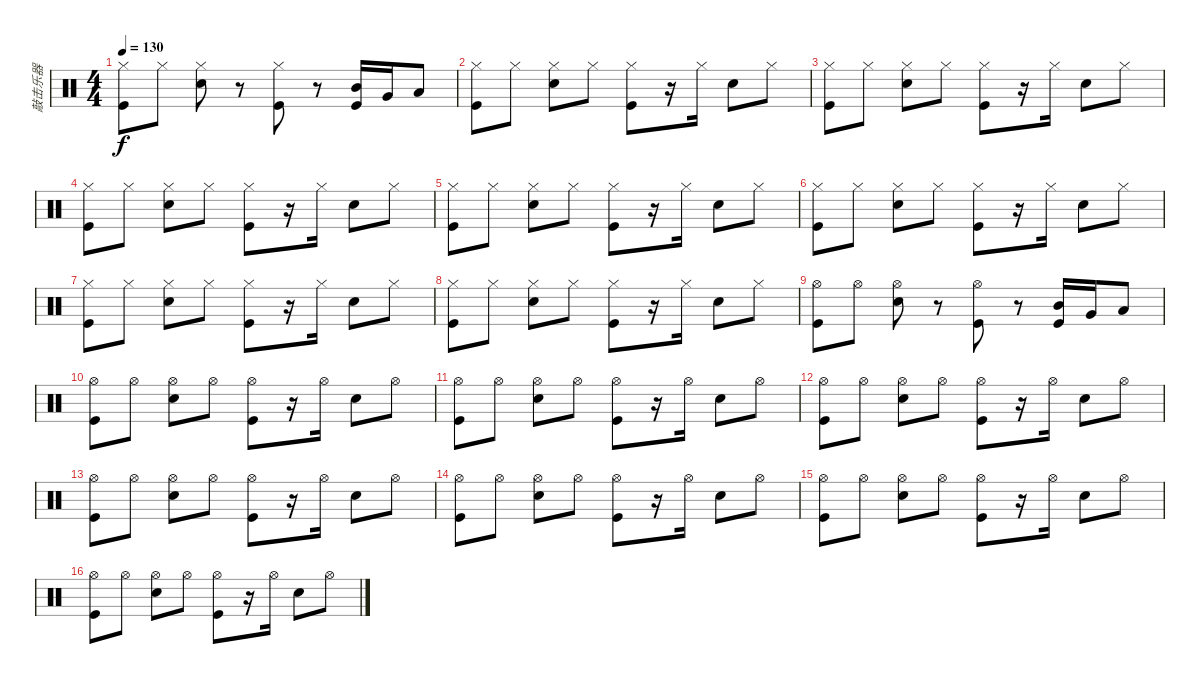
\track ("敲击乐器" "敲击乐器") {instrument percussion}
\staff {score}
\articulation defaults
\ts (4 4)
\tempo 130
\clef neutral
\ks c
("Hi-Hat (closed)" "Kick (hit)").8{dy f} "Hi-Hat (closed)".8 ("Hi-Hat (closed)" "Snare (hit) 2").8 r.8 ("Hi-Hat (closed)" "Kick (hit)").8 r.8 ("Mid Tom (hit)" "Kick (hit)").16 "Very Low Tom (hit)".16 "Low Floor Tom (hit)".8 |
("Hi-Hat (closed)" "Kick (hit)").8 "Hi-Hat (closed)".8 ("Hi-Hat (closed)" "Snare (hit) 2").8 "Hi-Hat (closed)".8 ("Hi-Hat (closed)" "Kick (hit)").8 r.16 "Hi-Hat (closed)".16 "Snare (hit) 2".8 "Hi-Hat (closed)".8 |
("Hi-Hat (closed)" "Kick (hit)").8 "Hi-Hat (closed)".8 ("Hi-Hat (closed)" "Snare (hit) 2").8 "Hi-Hat (closed)".8 ("Hi-Hat (closed)" "Kick (hit)").8 r.16 "Hi-Hat (closed)".16 "Snare (hit) 2".8 "Hi-Hat (closed)".8 |
("Hi-Hat (closed)" "Kick (hit)").8 "Hi-Hat (closed)".8 ("Hi-Hat (closed)" "Snare (hit) 2").8 "Hi-Hat (closed)".8 ("Hi-Hat (closed)" "Kick (hit)").8 r.16 "Hi-Hat (closed)".16 "Snare (hit) 2".8 "Hi-Hat (closed)".8 |
("Hi-Hat (closed)" "Kick (hit)").8 "Hi-Hat (closed)".8 ("Hi-Hat (closed)" "Snare (hit) 2").8 "Hi-Hat (closed)".8 ("Hi-Hat (closed)" "Kick (hit)").8 r.16 "Hi-Hat (closed)".16 "Snare (hit) 2".8 "Hi-Hat (closed)".8 |
("Hi-Hat (closed)" "Kick (hit)").8 "Hi-Hat (closed)".8 ("Hi-Hat (closed)" "Snare (hit) 2").8 "Hi-Hat (closed)".8 ("Hi-Hat (closed)" "Kick (hit)").8 r.16 "Hi-Hat (closed)".16 "Snare (hit) 2".8 "Hi-Hat (closed)".8 |
("Hi-Hat (closed)" "Kick (hit)").8 "Hi-Hat (closed)".8 ("Hi-Hat (closed)" "Snare (hit) 2").8 "Hi-Hat (closed)".8 ("Hi-Hat (closed)" "Kick (hit)").8 r.16 "Hi-Hat (closed)".16 "Snare (hit) 2".8 "Hi-Hat (closed)".8 |
("Hi-Hat (closed)" "Kick (hit)").8 "Hi-Hat (closed)".8 ("Hi-Hat (closed)" "Snare (hit) 2").8 "Hi-Hat (closed)".8 ("Hi-Hat (closed)" "Kick (hit)").8 r.16 "Hi-Hat (closed)".16 "Snare (hit) 2".8 "Hi-Hat (closed)".8 |
("Hi-Hat (open)" "Kick (hit)").8 "Hi-Hat (open)".8 ("Hi-Hat (open)" "Snare (hit) 2").8 r.8 ("Hi-Hat (open)" "Kick (hit)").8 r.8 ("Mid Tom (hit)" "Kick (hit)").16 "Very Low Tom (hit)".16 "Low Floor Tom (hit)".8 |
("Hi-Hat (open)" "Kick (hit)").8 "Hi-Hat (open)".8 ("Hi-Hat (open)" "Snare (hit) 2").8 "Hi-Hat (open)".8 ("Hi-Hat (open)" "Kick (hit)").8 r.16 "Hi-Hat (open)".16 "Snare (hit) 2".8 "Hi-Hat (open)".8 |
("Hi-Hat (open)" "Kick (hit)").8 "Hi-Hat (open)".8 ("Hi-Hat (open)" "Snare (hit) 2").8 "Hi-Hat (open)".8 ("Hi-Hat (open)" "Kick (hit)").8 r.16 "Hi-Hat (open)".16 "Snare (hit) 2".8 "Hi-Hat (open)".8 |
("Hi-Hat (open)" "Kick (hit)").8 "Hi-Hat (open)".8 ("Hi-Hat (open)" "Snare (hit) 2").8 "Hi-Hat (open)".8 ("Hi-Hat (open)" "Kick (hit)").8 r.16 "Hi-Hat (open)".16 "Snare (hit) 2".8 "Hi-Hat (open)".8 |
("Hi-Hat (open)" "Kick (hit)").8 "Hi-Hat (open)".8 ("Hi-Hat (open)" "Snare (hit) 2").8 "Hi-Hat (open)".8 ("Hi-Hat (open)" "Kick (hit)").8 r.16 "Hi-Hat (open)".16 "Snare (hit) 2".8 "Hi-Hat (open)".8 |
("Hi-Hat (open)" "Kick (hit)").8 "Hi-Hat (open)".8 ("Hi-Hat (open)" "Snare (hit) 2").8 "Hi-Hat (open)".8 ("Hi-Hat (open)" "Kick (hit)").8 r.16 "Hi-Hat (open)".16 "Snare (hit) 2".8 "Hi-Hat (open)".8 |
("Hi-Hat (open)" "Kick (hit)").8 "Hi-Hat (open)".8 ("Hi-Hat (open)" "Snare (hit) 2").8 "Hi-Hat (open)".8 ("Hi-Hat (open)" "Kick (hit)").8 r.16 "Hi-Hat (open)".16 "Snare (hit) 2".8 "Hi-Hat (open)".8 |
("Hi-Hat (open)" "Kick (hit)").8 "Hi-Hat (open)".8 ("Hi-Hat (open)" "Snare (hit) 2").8 "Hi-Hat (open)".8 ("Hi-Hat (open)" "Kick (hit)").8 r.16 "Hi-Hat (open)".16 "Snare (hit) 2".8 "Hi-Hat (open)".8
